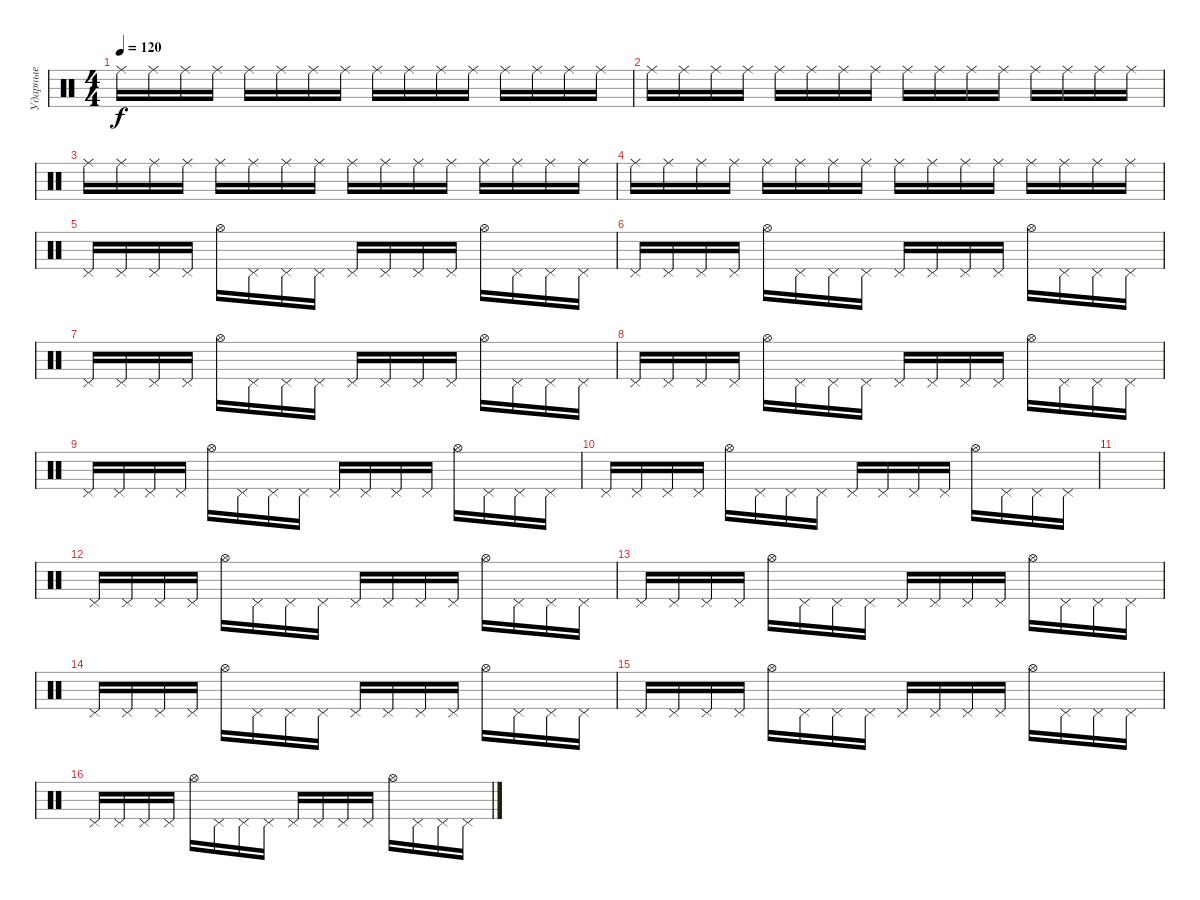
\track ("Ударные" "Ударные") {instrument percussion}
\staff {score}
\articulation defaults
\ts (4 4)
\tempo 120
\clef neutral
\ks c "Ride (middle)".16{dy f} "Ride (middle)".16 "Ride (middle)".16 "Ride (middle)".16 "Ride (middle)".16 "Ride (middle)".16 "Ride (middle)".16 "Ride (middle)".16 "Ride (middle)".16 "Ride (middle)".16 "Ride (middle)".16 "Ride (middle)".16 "Ride (middle)".16 "Ride (middle)".16 "Ride (middle)".16 "Ride (middle)".16
|
"Ride (middle)".16 "Ride (middle)".16 "Ride (middle)".16 "Ride (middle)".16 "Ride (middle)".16 "Ride (middle)".16 "Ride (middle)".16 "Ride (middle)".16 "Ride (middle)".16 "Ride (middle)".16 "Ride (middle)".16 "Ride (middle)".16 "Ride (middle)".16 "Ride (middle)".16 "Ride (middle)".16 "Ride (middle)".16 |
"Ride (middle)".16 "Ride (middle)".16 "Ride (middle)".16 "Ride (middle)".16 "Ride (middle)".16 "Ride (middle)".16 "Ride (middle)".16 "Ride (middle)".16 "Ride (middle)".16 "Ride (middle)".16 "Ride (middle)".16 "Ride (middle)".16 "Ride (middle)".16 "Ride (middle)".16 "Ride (middle)".16 "Ride (middle)".16 |
"Ride (middle)".16 "Ride (middle)".16 "Ride (middle)".16 "Ride (middle)".16 "Ride (middle)".16 "Ride (middle)".16 "Ride (middle)".16 "Ride (middle)".16 "Ride (middle)".16 "Ride (middle)".16 "Ride (middle)".16 "Ride (middle)".16 "Ride (middle)".16 "Ride (middle)".16 "Ride (middle)".16 "Ride (middle)".16 |
"Pedal Hi-Hat (hit)".16 "Pedal Hi-Hat (hit)".16 "Pedal Hi-Hat (hit)".16 "Pedal Hi-Hat (hit)".16 "Hi-Hat (open)".16 "Pedal Hi-Hat (hit)".16 "Pedal Hi-Hat (hit)".16 "Pedal Hi-Hat (hit)".16 "Pedal Hi-Hat (hit)".16 "Pedal Hi-Hat (hit)".16 "Pedal Hi-Hat (hit)".16 "Pedal Hi-Hat (hit)".16 "Hi-Hat (open)".16 "Pedal Hi-Hat (hit)".16 "Pedal Hi-Hat (hit)".16 "Pedal Hi-Hat (hit)".16 |
"Pedal Hi-Hat (hit)".16 "Pedal Hi-Hat (hit)".16 "Pedal Hi-Hat (hit)".16 "Pedal Hi-Hat (hit)".16 "Hi-Hat (open)".16 "Pedal Hi-Hat (hit)".16 "Pedal Hi-Hat (hit)".16 "Pedal Hi-Hat (hit)".16 "Pedal Hi-Hat (hit)".16 "Pedal Hi-Hat (hit)".16 "Pedal Hi-Hat (hit)".16 "Pedal Hi-Hat (hit)".16 "Hi-Hat (open)".16 "Pedal Hi-Hat (hit)".16 "Pedal Hi-Hat (hit)".16 "Pedal Hi-Hat (hit)".16 |
"Pedal Hi-Hat (hit)".16 "Pedal Hi-Hat (hit)".16 "Pedal Hi-Hat (hit)".16 "Pedal Hi-Hat (hit)".16 "Hi-Hat (open)".16 "Pedal Hi-Hat (hit)".16 "Pedal Hi-Hat (hit)".16 "Pedal Hi-Hat (hit)".16 "Pedal Hi-Hat (hit)".16 "Pedal Hi-Hat (hit)".16 "Pedal Hi-Hat (hit)".16 "Pedal Hi-Hat (hit)".16 "Hi-Hat (open)".16 "Pedal Hi-Hat (hit)".16 "Pedal Hi-Hat (hit)".16 "Pedal Hi-Hat (hit)".16 |
"Pedal Hi-Hat (hit)".16 "Pedal Hi-Hat (hit)".16 "Pedal Hi-Hat (hit)".16 "Pedal Hi-Hat (hit)".16 "Hi-Hat (open)".16 "Pedal Hi-Hat (hit)".16 "Pedal Hi-Hat (hit)".16 "Pedal Hi-Hat (hit)".16 "Pedal Hi-Hat (hit)".16 "Pedal Hi-Hat (hit)".16 "Pedal Hi-Hat (hit)".16 "Pedal Hi-Hat (hit)".16 "Hi-Hat (open)".16 "Pedal Hi-Hat (hit)".16 "Pedal Hi-Hat (hit)".16 "Pedal Hi-Hat (hit)".16 |
"Pedal Hi-Hat (hit)".16 "Pedal Hi-Hat (hit)".16 "Pedal Hi-Hat (hit)".16 "Pedal Hi-Hat (hit)".16 "Hi-Hat (open)".16 "Pedal Hi-Hat (hit)".16 "Pedal Hi-Hat (hit)".16 "Pedal Hi-Hat (hit)".16 "Pedal Hi-Hat (hit)".16 "Pedal Hi-Hat (hit)".16 "Pedal Hi-Hat (hit)".16 "Pedal Hi-Hat (hit)".16 "Hi-Hat (open)".16 "Pedal Hi-Hat (hit)".16 "Pedal Hi-Hat (hit)".16 "Pedal Hi-Hat (hit)".16 |
"Pedal Hi-Hat (hit)".16 "Pedal Hi-Hat (hit)".16 "Pedal Hi-Hat (hit)".16 "Pedal Hi-Hat (hit)".16 "Hi-Hat (open)".16 "Pedal Hi-Hat (hit)".16 "Pedal Hi-Hat (hit)".16 "Pedal Hi-Hat (hit)".16 "Pedal Hi-Hat (hit)".16 "Pedal Hi-Hat (hit)".16 "Pedal Hi-Hat (hit)".16 "Pedal Hi-Hat (hit)".16 "Hi-Hat (open)".16 "Pedal Hi-Hat (hit)".16 "Pedal Hi-Hat (hit)".16 "Pedal Hi-Hat (hit)".16 |
|
"Pedal Hi-Hat (hit)".16 "Pedal Hi-Hat (hit)".16 "Pedal Hi-Hat (hit)".16 "Pedal Hi-Hat (hit)".16 "Hi-Hat (open)".16 "Pedal Hi-Hat (hit)".16 "Pedal Hi-Hat (hit)".16 "Pedal Hi-Hat (hit)".16 "Pedal Hi-Hat (hit)".16 "Pedal Hi-Hat (hit)".16 "Pedal Hi-Hat (hit)".16 "Pedal Hi-Hat (hit)".16 "Hi-Hat (open)".16 "Pedal Hi-Hat (hit)".16 "Pedal Hi-Hat (hit)".16 "Pedal Hi-Hat (hit)".16 |
"Pedal Hi-Hat (hit)".16 "Pedal Hi-Hat (hit)".16 "Pedal Hi-Hat (hit)".16 "Pedal Hi-Hat (hit)".16 "Hi-Hat (open)".16 "Pedal Hi-Hat (hit)".16 "Pedal Hi-Hat (hit)".16 "Pedal Hi-Hat (hit)".16 "Pedal Hi-Hat (hit)".16 "Pedal Hi-Hat (hit)".16 "Pedal Hi-Hat (hit)".16 "Pedal Hi-Hat (hit)".16 "Hi-Hat (open)".16 "Pedal Hi-Hat (hit)".16 "Pedal Hi-Hat (hit)".16 "Pedal Hi-Hat (hit)".16 |
"Pedal Hi-Hat (hit)".16 "Pedal Hi-Hat (hit)".16 "Pedal Hi-Hat (hit)".16 "Pedal Hi-Hat (hit)".16 "Hi-Hat (open)".16 "Pedal Hi-Hat (hit)".16 "Pedal Hi-Hat (hit)".16 "Pedal Hi-Hat (hit)".16 "Pedal Hi-Hat (hit)".16 "Pedal Hi-Hat (hit)".16 "Pedal Hi-Hat (hit)".16 "Pedal Hi-Hat (hit)".16 "Hi-Hat (open)".16 "Pedal Hi-Hat (hit)".16 "Pedal Hi-Hat (hit)".16 "Pedal Hi-Hat (hit)".16 |
"Pedal Hi-Hat (hit)".16 "Pedal Hi-Hat (hit)".16 "Pedal Hi-Hat (hit)".16 "Pedal Hi-Hat (hit)".16 "Hi-Hat (open)".16 "Pedal Hi-Hat (hit)".16 "Pedal Hi-Hat (hit)".16 "Pedal Hi-Hat (hit)".16 "Pedal Hi-Hat (hit)".16 "Pedal Hi-Hat (hit)".16 "Pedal Hi-Hat (hit)".16 "Pedal Hi-Hat (hit)".16 "Hi-Hat (open)".16 "Pedal Hi-Hat (hit)".16 "Pedal Hi-Hat (hit)".16 "Pedal Hi-Hat (hit)".16 |
"Pedal Hi-Hat (hit)".16 "Pedal Hi-Hat (hit)".16 "Pedal Hi-Hat (hit)".16 "Pedal Hi-Hat (hit)".16 "Hi-Hat (open)".16 "Pedal Hi-Hat (hit)".16 "Pedal Hi-Hat (hit)".16 "Pedal Hi-Hat (hit)".16 "Pedal Hi-Hat (hit)".16 "Pedal Hi-Hat (hit)".16 "Pedal Hi-Hat (hit)".16 "Pedal Hi-Hat (hit)".16 "Hi-Hat (open)".16 "Pedal Hi-Hat (hit)".16 "Pedal Hi-Hat (hit)".16 "Pedal Hi-Hat (hit)".16
